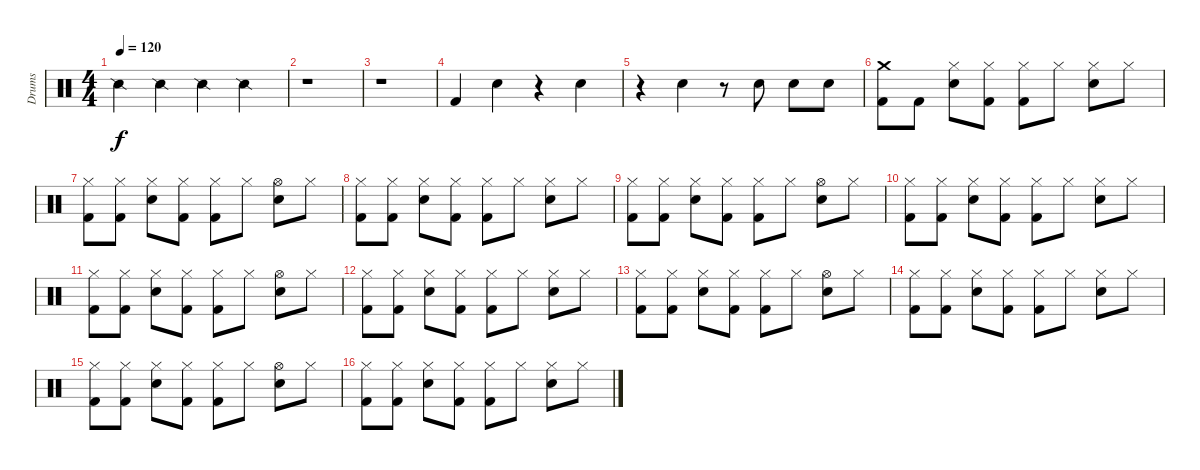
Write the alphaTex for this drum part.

\track ("Drums " "Drums ") {instrument percussion}
\staff {score}
\articulation defaults
\ts (4 4)
\tempo 120
\clef neutral
\ks c "Snare (side stick) 2".4{dy f} "Snare (side stick) 2".4 "Snare (side stick) 2".4 "Snare (side stick) 2".4
|
r.1 |
r.1 |
"Kick (hit) 2".4 "Electric Snare (hit)".4 r.4 "Electric Snare (hit)".4 |
r.4 "Electric Snare (hit)".4 r.8 "Electric Snare (hit)".8 "Electric Snare (hit)".8 "Electric Snare (hit)".8 |
("Crash medium (hit)" "Kick (hit) 2").8 "Kick (hit) 2".8 ("Hi-Hat (closed)" "Electric Snare (hit)").8 ("Hi-Hat (closed)" "Kick (hit) 2").8 ("Kick (hit) 2" "Hi-Hat (closed)").8 "Hi-Hat (closed)".8 ("Electric Snare (hit)" "Hi-Hat (closed)").8 "Hi-Hat (closed)".8 |
("Kick (hit) 2" "Hi-Hat (closed)").8 ("Kick (hit) 2" "Hi-Hat (closed)").8 ("Electric Snare (hit)" "Hi-Hat (closed)").8 ("Kick (hit) 2" "Hi-Hat (closed)").8 ("Kick (hit) 2" "Hi-Hat (closed)").8 "Hi-Hat (closed)".8 ("Electric Snare (hit)" "Hi-Hat (open)").8 "Hi-Hat (closed)".8 |
("Kick (hit) 2" "Hi-Hat (closed)").8 ("Kick (hit) 2" "Hi-Hat (closed)").8 ("Electric Snare (hit)" "Hi-Hat (closed)").8 ("Kick (hit) 2" "Hi-Hat (closed)").8 ("Kick (hit) 2" "Hi-Hat (closed)").8 "Hi-Hat (closed)".8 ("Electric Snare (hit)" "Hi-Hat (closed)").8 "Hi-Hat (closed)".8 |
("Kick (hit) 2" "Hi-Hat (closed)").8 ("Kick (hit) 2" "Hi-Hat (closed)").8 ("Electric Snare (hit)" "Hi-Hat (closed)").8 ("Kick (hit) 2" "Hi-Hat (closed)").8 ("Kick (hit) 2" "Hi-Hat (closed)").8 "Hi-Hat (closed)".8 ("Electric Snare (hit)" "Hi-Hat (open)").8 "Hi-Hat (closed)".8 |
("Kick (hit) 2" "Hi-Hat (closed)").8 ("Kick (hit) 2" "Hi-Hat (closed)").8 ("Electric Snare (hit)" "Hi-Hat (closed)").8 ("Kick (hit) 2" "Hi-Hat (closed)").8 ("Kick (hit) 2" "Hi-Hat (closed)").8 "Hi-Hat (closed)".8 ("Electric Snare (hit)" "Hi-Hat (closed)").8 "Hi-Hat (closed)".8 |
("Kick (hit) 2" "Hi-Hat (closed)").8 ("Kick (hit) 2" "Hi-Hat (closed)").8 ("Electric Snare (hit)" "Hi-Hat (closed)").8 ("Kick (hit) 2" "Hi-Hat (closed)").8 ("Kick (hit) 2" "Hi-Hat (closed)").8 "Hi-Hat (closed)".8 ("Electric Snare (hit)" "Hi-Hat (open)").8 "Hi-Hat (closed)".8 |
("Hi-Hat (closed)" "Kick (hit) 2").8 ("Kick (hit) 2" "Hi-Hat (closed)").8 ("Electric Snare (hit)" "Hi-Hat (closed)").8 ("Kick (hit) 2" "Hi-Hat (closed)").8 ("Kick (hit) 2" "Hi-Hat (closed)").8 "Hi-Hat (closed)".8 ("Electric Snare (hit)" "Hi-Hat (closed)").8 "Hi-Hat (closed)".8 |
("Kick (hit) 2" "Hi-Hat (closed)").8 ("Kick (hit) 2" "Hi-Hat (closed)").8 ("Electric Snare (hit)" "Hi-Hat (closed)").8 ("Kick (hit) 2" "Hi-Hat (closed)").8 ("Kick (hit) 2" "Hi-Hat (closed)").8 "Hi-Hat (closed)".8 ("Electric Snare (hit)" "Hi-Hat (open)").8 "Hi-Hat (closed)".8 |
("Kick (hit) 2" "Hi-Hat (closed)").8 ("Kick (hit) 2" "Hi-Hat (closed)").8 ("Electric Snare (hit)" "Hi-Hat (closed)").8 ("Kick (hit) 2" "Hi-Hat (closed)").8 ("Kick (hit) 2" "Hi-Hat (closed)").8 "Hi-Hat (closed)".8 ("Electric Snare (hit)" "Hi-Hat (closed)").8 "Hi-Hat (closed)".8 |
("Kick (hit) 2" "Hi-Hat (closed)").8 ("Kick (hit) 2" "Hi-Hat (closed)").8 ("Electric Snare (hit)" "Hi-Hat (closed)").8 ("Kick (hit) 2" "Hi-Hat (closed)").8 ("Kick (hit) 2" "Hi-Hat (closed)").8 "Hi-Hat (closed)".8 ("Electric Snare (hit)" "Hi-Hat (open)").8 "Hi-Hat (closed)".8 |
("Kick (hit) 2" "Hi-Hat (closed)").8 ("Kick (hit) 2" "Hi-Hat (closed)").8 ("Electric Snare (hit)" "Hi-Hat (closed)").8 ("Kick (hit) 2" "Hi-Hat (closed)").8 ("Kick (hit) 2" "Hi-Hat (closed)").8 "Hi-Hat (closed)".8 ("Electric Snare (hit)" "Hi-Hat (closed)").8 "Hi-Hat (closed)".8
